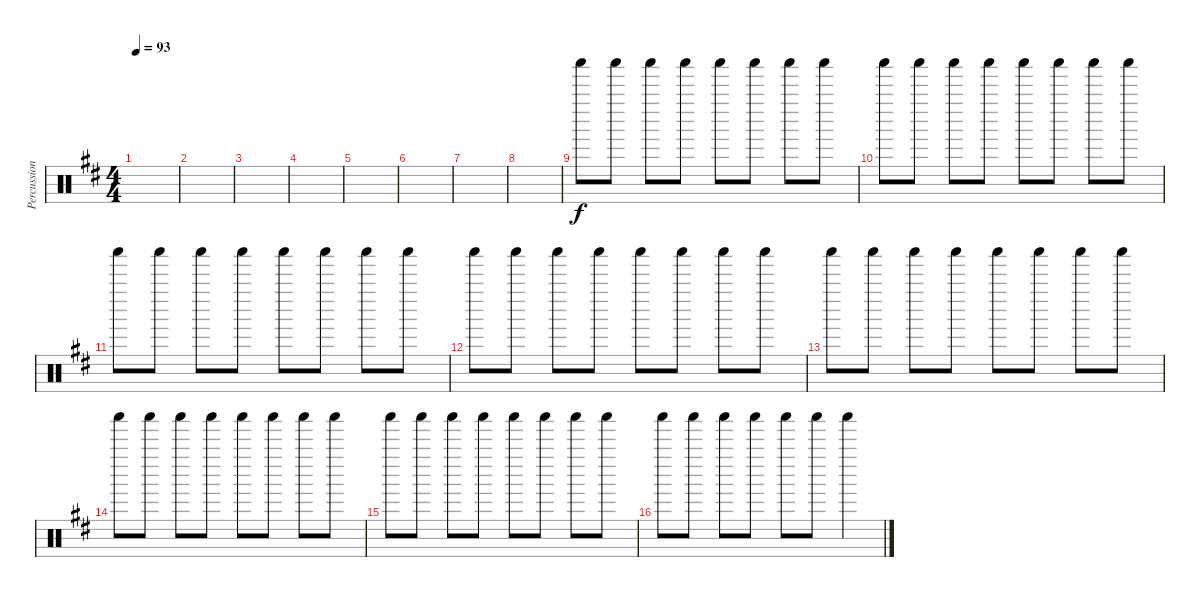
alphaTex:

\track ("Percussions" "Percussion") {instrument percussion}
\staff {score}
\articulation defaults
\ts (4 4)
\tempo 93
\clef neutral
\ks d
|
|
|
|
|
|
|
|
"Shaker (hit)".8 "Shaker (hit)".8 "Shaker (hit)".8 "Shaker (hit)".8 "Shaker (hit)".8 "Shaker (hit)".8 "Shaker (hit)".8 "Shaker (hit)".8 |
"Shaker (hit)".8 "Shaker (hit)".8 "Shaker (hit)".8 "Shaker (hit)".8 "Shaker (hit)".8 "Shaker (hit)".8 "Shaker (hit)".8 "Shaker (hit)".8 |
"Shaker (hit)".8 "Shaker (hit)".8 "Shaker (hit)".8 "Shaker (hit)".8 "Shaker (hit)".8 "Shaker (hit)".8 "Shaker (hit)".8 "Shaker (hit)".8 |
"Shaker (hit)".8 "Shaker (hit)".8 "Shaker (hit)".8 "Shaker (hit)".8 "Shaker (hit)".8 "Shaker (hit)".8 "Shaker (hit)".8 "Shaker (hit)".8 |
"Shaker (hit)".8 "Shaker (hit)".8 "Shaker (hit)".8 "Shaker (hit)".8 "Shaker (hit)".8 "Shaker (hit)".8 "Shaker (hit)".8 "Shaker (hit)".8 |
"Shaker (hit)".8 "Shaker (hit)".8 "Shaker (hit)".8 "Shaker (hit)".8 "Shaker (hit)".8 "Shaker (hit)".8 "Shaker (hit)".8 "Shaker (hit)".8 |
"Shaker (hit)".8 "Shaker (hit)".8 "Shaker (hit)".8 "Shaker (hit)".8 "Shaker (hit)".8 "Shaker (hit)".8 "Shaker (hit)".8 "Shaker (hit)".8 |
"Shaker (hit)".8 "Shaker (hit)".8 "Shaker (hit)".8 "Shaker (hit)".8 "Shaker (hit)".8 "Shaker (hit)".8 "Shaker (hit)".4
